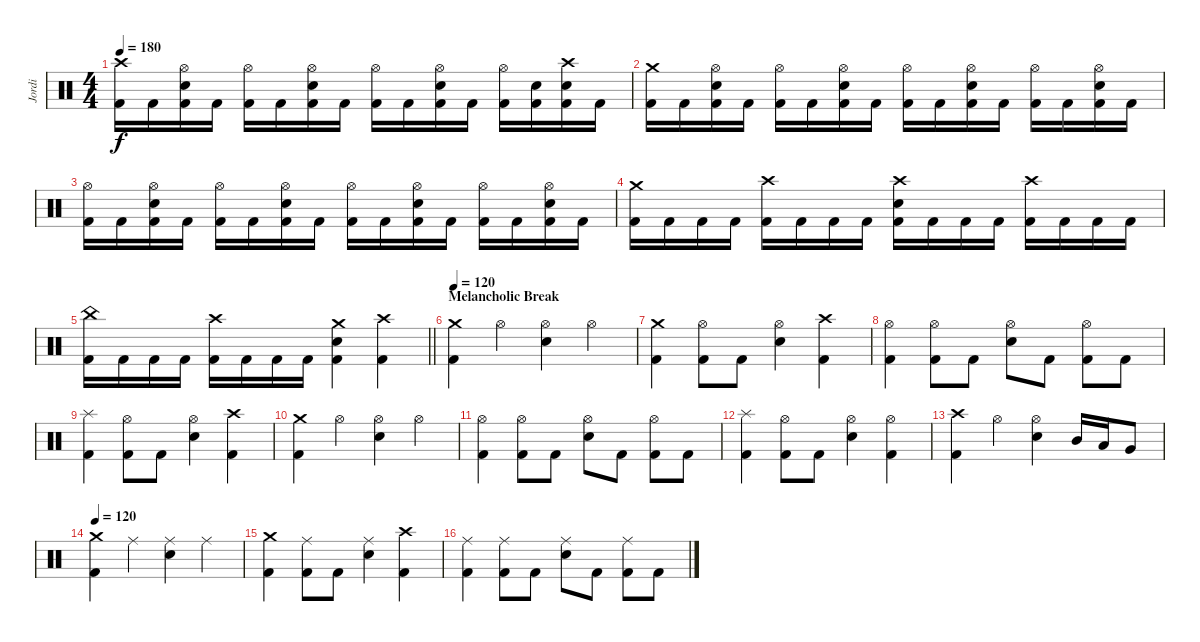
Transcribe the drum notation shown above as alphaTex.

\track ("Jordi" "Jordi") {instrument percussion}
\staff {score}
\articulation defaults
\ts (4 4)
\tempo 180
\clef neutral
\ks c
("Crash high (hit)" "Kick (hit) 2").16{dy f} "Kick (hit) 2".16 ("Hi-Hat (open)" "Snare (hit) 2" "Kick (hit) 2").16 "Kick (hit) 2".16 ("Hi-Hat (open)" "Kick (hit) 2").16 "Kick (hit) 2".16 ("Hi-Hat (open)" "Snare (hit) 2" "Kick (hit) 2").16 "Kick (hit) 2".16 ("Hi-Hat (open)" "Kick (hit) 2").16 "Kick (hit) 2".16 ("Hi-Hat (open)" "Snare (hit) 2" "Kick (hit) 2").16 "Kick (hit) 2".16 ("Hi-Hat (open)" "Kick (hit) 2").16 ("Snare (hit) 2" "Kick (hit) 2").16 ("Crash high (hit)" "Snare (hit) 2" "Kick (hit) 2").16 "Kick (hit) 2".16 |
("Crash medium (hit)" "Kick (hit) 2").16 "Kick (hit) 2".16 ("Hi-Hat (open)" "Snare (hit) 2" "Kick (hit) 2").16 "Kick (hit) 2".16 ("Hi-Hat (open)" "Kick (hit) 2").16 "Kick (hit) 2".16 ("Hi-Hat (open)" "Snare (hit) 2" "Kick (hit) 2").16 "Kick (hit) 2".16 ("Hi-Hat (open)" "Kick (hit) 2").16 "Kick (hit) 2".16 ("Hi-Hat (open)" "Snare (hit) 2" "Kick (hit) 2").16 "Kick (hit) 2".16 ("Hi-Hat (open)" "Kick (hit) 2").16 "Kick (hit) 2".16 ("Hi-Hat (open)" "Snare (hit) 2" "Kick (hit) 2").16 "Kick (hit) 2".16 |
("Hi-Hat (open)" "Kick (hit) 2").16 "Kick (hit) 2".16 ("Hi-Hat (open)" "Snare (hit) 2" "Kick (hit) 2").16 "Kick (hit) 2".16 ("Hi-Hat (open)" "Kick (hit) 2").16 "Kick (hit) 2".16 ("Hi-Hat (open)" "Snare (hit) 2" "Kick (hit) 2").16 "Kick (hit) 2".16 ("Hi-Hat (open)" "Kick (hit) 2").16 "Kick (hit) 2".16 ("Hi-Hat (open)" "Snare (hit) 2" "Kick (hit) 2").16 "Kick (hit) 2".16 ("Hi-Hat (open)" "Kick (hit) 2").16 "Kick (hit) 2".16 ("Hi-Hat (open)" "Snare (hit) 2" "Kick (hit) 2").16 "Kick (hit) 2".16 |
("Crash medium (hit)" "Kick (hit) 2").16 "Kick (hit) 2".16 "Kick (hit) 2".16 "Kick (hit) 2".16 ("Crash high (hit)" "Kick (hit) 2").16 "Kick (hit) 2".16 "Kick (hit) 2".16 "Kick (hit) 2".16 ("Crash high (hit)" "Snare (hit) 2" "Kick (hit) 2").16 "Kick (hit) 2".16 "Kick (hit) 2".16 "Kick (hit) 2".16 ("Crash high (hit)" "Kick (hit) 2").16 "Kick (hit) 2".16 "Kick (hit) 2".16 "Kick (hit) 2".16 |
\barLineRight lightlight
("China (hit)" "Kick (hit) 2").16 "Kick (hit) 2".16 "Kick (hit) 2".16 "Kick (hit) 2".16 ("Crash high (hit)" "Kick (hit) 2").16 "Kick (hit) 2".16 "Kick (hit) 2".16 "Kick (hit) 2".16 ("Crash medium (hit)" "Snare (hit) 2" "Kick (hit) 2").4 ("Crash high (hit)" "Kick (hit) 2").4 |
\section ("" "Melancholic Break")
\tempo 120
("Crash medium (hit)" "Kick (hit) 2").4 "Hi-Hat (open)".4 ("Hi-Hat (open)" "Snare (hit) 2").4 "Hi-Hat (open)".4 |
("Crash medium (hit)" "Kick (hit) 2").4 ("Hi-Hat (open)" "Kick (hit) 2").8 "Kick (hit) 2".8 ("Hi-Hat (open)" "Snare (hit) 2").4 ("Crash high (hit)" "Kick (hit) 2").4 |
("Hi-Hat (open)" "Kick (hit) 2").4 ("Hi-Hat (open)" "Kick (hit) 2").8 "Kick (hit) 2".8 ("Hi-Hat (open)" "Snare (hit) 2").8 "Kick (hit) 2".8 ("Hi-Hat (open)" "Kick (hit) 2").8 "Kick (hit) 2".8 |
("Splash (hit)" "Kick (hit) 2").4 ("Hi-Hat (open)" "Kick (hit) 2").8 "Kick (hit) 2".8 ("Hi-Hat (open)" "Snare (hit) 2").4 ("Crash high (hit)" "Kick (hit) 2").4 |
("Crash medium (hit)" "Kick (hit) 2").4 "Hi-Hat (open)".4 ("Hi-Hat (open)" "Snare (hit) 2").4 "Hi-Hat (open)".4 |
("Hi-Hat (open)" "Kick (hit) 2").4 ("Hi-Hat (open)" "Kick (hit) 2").8 "Kick (hit) 2".8 ("Hi-Hat (open)" "Snare (hit) 2").8 "Kick (hit) 2".8 ("Hi-Hat (open)" "Kick (hit) 2").8 "Kick (hit) 2".8 |
("Splash (hit)" "Kick (hit) 2").4 ("Hi-Hat (open)" "Kick (hit) 2").8 "Kick (hit) 2".8 ("Hi-Hat (open)" "Snare (hit) 2").4 ("Hi-Hat (open)" "Kick (hit) 2").4 |
("Crash high (hit)" "Kick (hit) 2").4 "Hi-Hat (open)".4 ("Hi-Hat (open)" "Snare (hit) 2").4 "Mid Tom (hit)".16 "Low Tom (hit)".16 "Very Low Tom (hit)".8 |
\tempo 120
("Crash medium (hit)" "Kick (hit) 2").4 "Ride (middle)".4 ("Ride (middle)" "Snare (hit) 2").4 "Ride (middle)".4 |
("Crash medium (hit)" "Kick (hit) 2").4 ("Ride (middle)" "Kick (hit) 2").8 "Kick (hit) 2".8 ("Ride (middle)" "Snare (hit) 2").4 ("Crash high (hit)" "Kick (hit) 2").4 |
("Ride (middle)" "Kick (hit) 2").4 ("Ride (middle)" "Kick (hit) 2").8 "Kick (hit) 2".8 ("Ride (middle)" "Snare (hit) 2").8 "Kick (hit) 2".8 ("Ride (middle)" "Kick (hit) 2").8 "Kick (hit) 2".8
